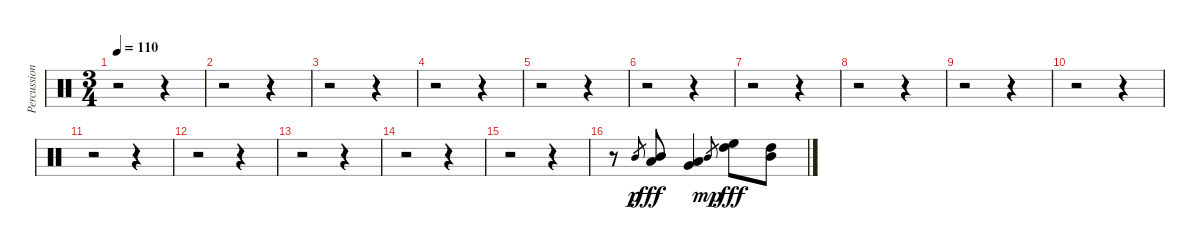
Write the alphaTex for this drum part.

\track ("Percussion" "Percussion") {instrument percussion}
\staff {score}
\articulation defaults
\ts (3 4)
\tempo 110
\clef neutral
\ks c
r.2{dy p} r.4 |
r.2 r.4 |
r.2 r.4 |
r.2 r.4 |
r.2 r.4 |
r.2 r.4 |
r.2 r.4 |
r.2 r.4 |
r.2 r.4 |
r.2 r.4 |
r.2 r.4 |
r.2 r.4 |
r.2 r.4 |
r.2 r.4 |
r.2 r.4 |
r.8 "Mid Tom (hit)".8{gr} ("Mid Tom (hit)" "Low Tom (hit)").8{dy fff} ("Low Tom (hit)" "Very Low Tom (hit)").4 "Mid Tom (hit)".8{gr dy mp} ("High Tom (hit)" "High Floor Tom (hit)").8{dy fff} ("Mid Tom (hit)" "High Tom (hit)").8
